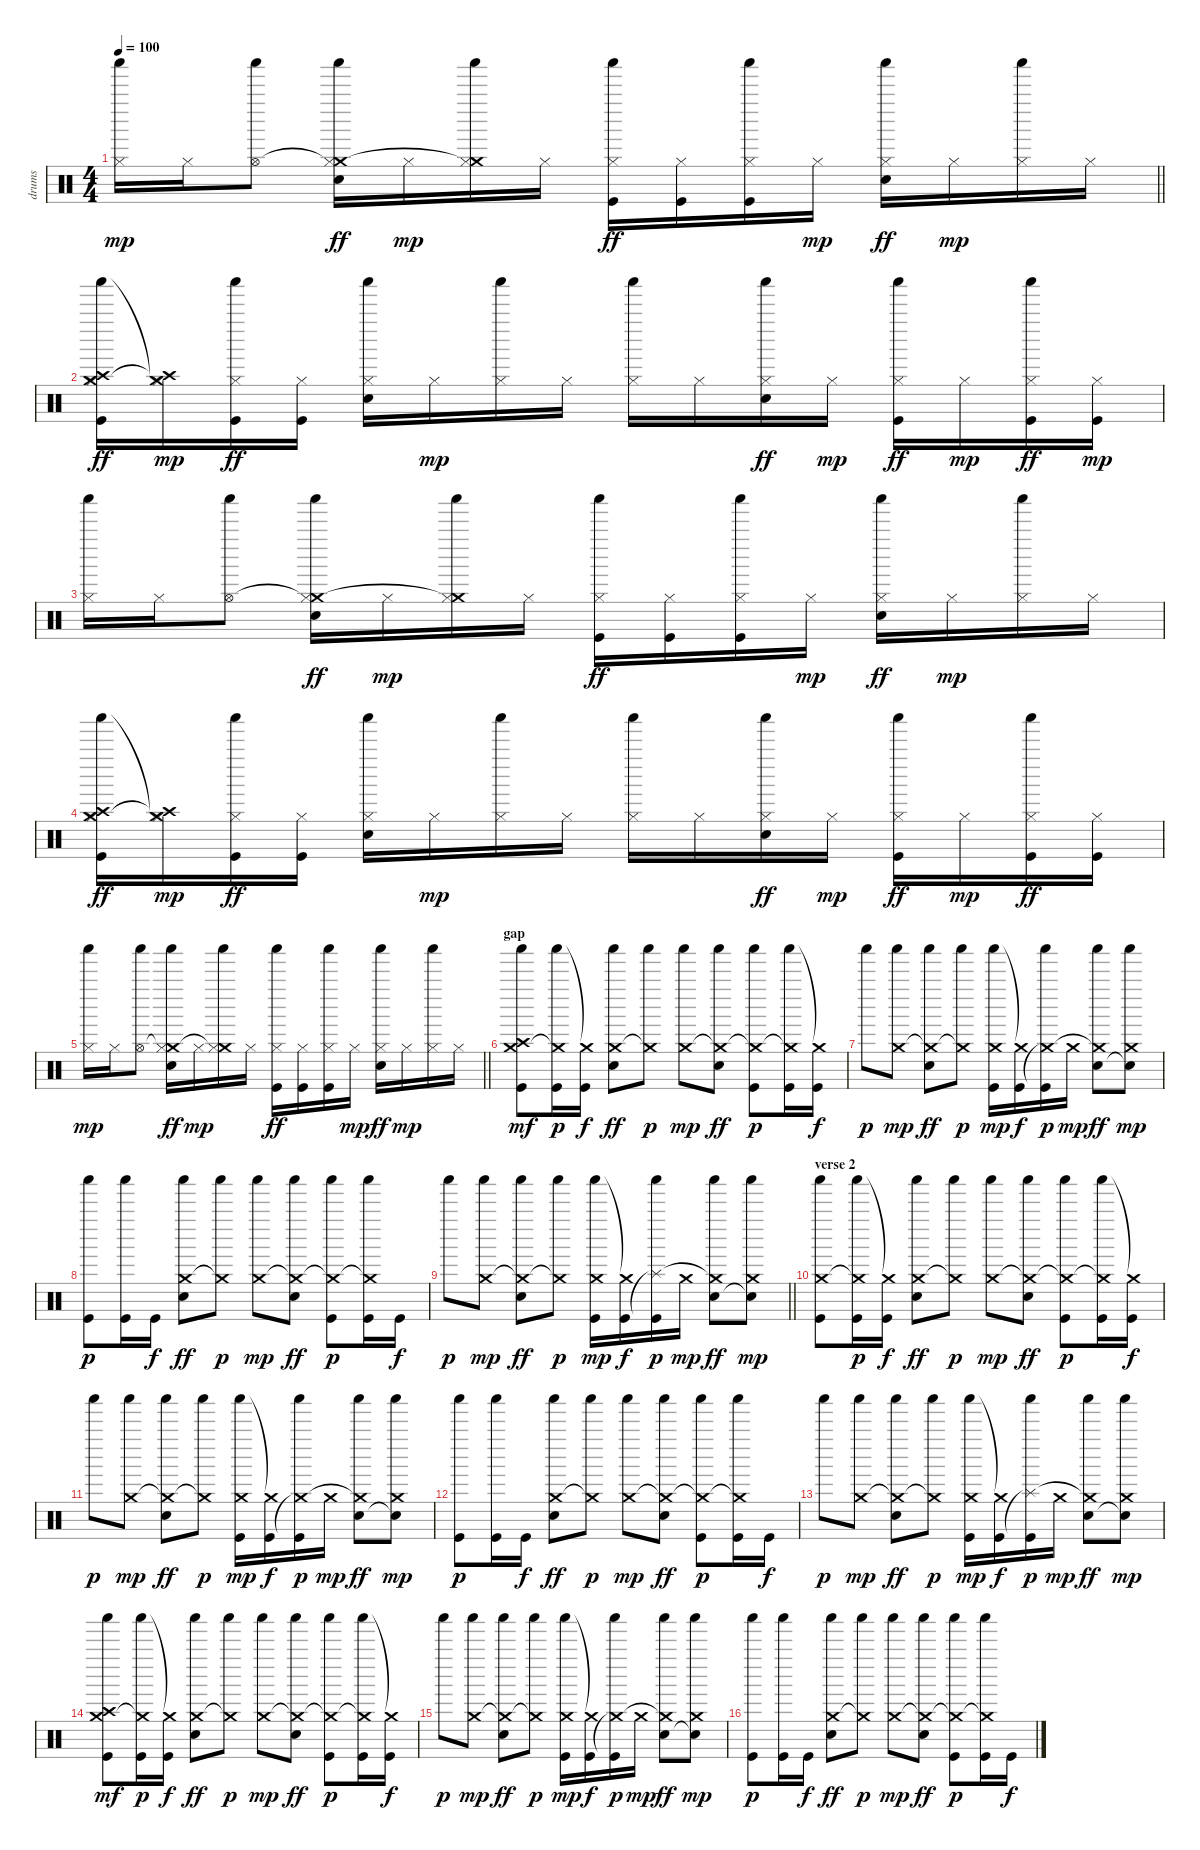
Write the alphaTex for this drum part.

\track ("drums" "drums") {instrument percussion}
\staff {score}
\articulation defaults
\ts (4 4)
\tempo 100
\clef neutral
\barLineRight lightlight
\ks c
("Shaker (hit)" "Hi-Hat (closed)").16{dy mp} "Hi-Hat (closed)".16 ("Shaker (hit)" "Hi-Hat (open)").8 ("Shaker (hit)" "Crash medium (hit)"{t} "Hi-Hat (closed)" "Electric Snare (hit)").16{dy ff} "Hi-Hat (closed)".16{dy mp} ("Shaker (hit)" "Crash medium (hit)"{t} "Hi-Hat (closed)").16 "Hi-Hat (closed)".16 ("Shaker (hit)" "Hi-Hat (closed)" "Kick (hit)").16{dy ff} ("Hi-Hat (closed)" "Kick (hit)").16 ("Shaker (hit)" "Hi-Hat (closed)" "Kick (hit)").16 "Hi-Hat (closed)".16{dy mp} ("Shaker (hit)" "Hi-Hat (closed)" "Electric Snare (hit)").16{dy ff} "Hi-Hat (closed)".16{dy mp} ("Shaker (hit)" "Hi-Hat (closed)").16 "Hi-Hat (closed)".16 |
("Shaker (hit)" "Crash medium (hit)" "Crash high (hit)" "Hi-Hat (closed)" "Kick (hit)").16{dy ff} ("Crash medium (hit)"{t} "Crash high (hit)"{t} "Hi-Hat (closed)").16{dy mp} ("Shaker (hit)" "Hi-Hat (closed)" "Kick (hit)").16{dy ff} ("Hi-Hat (closed)" "Kick (hit)").16 ("Shaker (hit)" "Hi-Hat (closed)" "Electric Snare (hit)").16 "Hi-Hat (closed)".16{dy mp} ("Shaker (hit)" "Hi-Hat (closed)").16 "Hi-Hat (closed)".16 ("Shaker (hit)" "Hi-Hat (closed)").16 "Hi-Hat (closed)".16 ("Shaker (hit)" "Hi-Hat (closed)" "Electric Snare (hit)").16{dy ff} "Hi-Hat (closed)".16{dy mp} ("Shaker (hit)" "Hi-Hat (closed)" "Kick (hit)").16{dy ff} "Hi-Hat (closed)".16{dy mp} ("Shaker (hit)" "Hi-Hat (closed)" "Kick (hit)").16{dy ff} ("Hi-Hat (closed)" "Kick (hit)").16{dy mp} |
("Shaker (hit)" "Hi-Hat (closed)").16 "Hi-Hat (closed)".16 ("Shaker (hit)" "Hi-Hat (open)").8 ("Shaker (hit)" "Crash medium (hit)"{t} "Hi-Hat (closed)" "Electric Snare (hit)").16{dy ff} "Hi-Hat (closed)".16{dy mp} ("Shaker (hit)" "Crash medium (hit)"{t} "Hi-Hat (closed)").16 "Hi-Hat (closed)".16 ("Shaker (hit)" "Hi-Hat (closed)" "Kick (hit)").16{dy ff} ("Hi-Hat (closed)" "Kick (hit)").16 ("Shaker (hit)" "Hi-Hat (closed)" "Kick (hit)").16 "Hi-Hat (closed)".16{dy mp} ("Shaker (hit)" "Hi-Hat (closed)" "Electric Snare (hit)").16{dy ff} "Hi-Hat (closed)".16{dy mp} ("Shaker (hit)" "Hi-Hat (closed)").16 "Hi-Hat (closed)".16 |
("Shaker (hit)" "Crash medium (hit)" "Crash high (hit)" "Hi-Hat (closed)" "Kick (hit)").16{dy ff} ("Crash medium (hit)"{t} "Crash high (hit)"{t} "Hi-Hat (closed)").16{dy mp} ("Shaker (hit)" "Hi-Hat (closed)" "Kick (hit)").16{dy ff} ("Hi-Hat (closed)" "Kick (hit)").16 ("Shaker (hit)" "Hi-Hat (closed)" "Electric Snare (hit)").16 "Hi-Hat (closed)".16{dy mp} ("Shaker (hit)" "Hi-Hat (closed)").16 "Hi-Hat (closed)".16 ("Shaker (hit)" "Hi-Hat (closed)").16 "Hi-Hat (closed)".16 ("Shaker (hit)" "Hi-Hat (closed)" "Electric Snare (hit)").16{dy ff} "Hi-Hat (closed)".16{dy mp} ("Shaker (hit)" "Hi-Hat (closed)" "Kick (hit)").16{dy ff} "Hi-Hat (closed)".16{dy mp} ("Shaker (hit)" "Hi-Hat (closed)" "Kick (hit)").16{dy ff} ("Hi-Hat (closed)" "Kick (hit)").16 |
\barLineRight lightlight
("Shaker (hit)" "Hi-Hat (closed)").16{dy mp} "Hi-Hat (closed)".16 ("Shaker (hit)" "Hi-Hat (open)").8 ("Shaker (hit)" "Crash medium (hit)"{t} "Hi-Hat (closed)" "Electric Snare (hit)").16{dy ff} "Hi-Hat (closed)".16{dy mp} ("Shaker (hit)" "Crash medium (hit)"{t} "Hi-Hat (closed)").16 "Hi-Hat (closed)".16 ("Shaker (hit)" "Hi-Hat (closed)" "Kick (hit)").16{dy ff} ("Hi-Hat (closed)" "Kick (hit)").16 ("Shaker (hit)" "Hi-Hat (closed)" "Kick (hit)").16 "Hi-Hat (closed)".16{dy mp} ("Shaker (hit)" "Hi-Hat (closed)" "Electric Snare (hit)").16{dy ff} "Hi-Hat (closed)".16{dy mp} ("Shaker (hit)" "Hi-Hat (closed)").16 "Hi-Hat (closed)".16 |
\section ("" "gap")
("Shaker (hit)" "Crash medium (hit)" "Crash high (hit)" "Kick (hit)").8{dy mf} ("Shaker (hit)" "Crash medium (hit)"{t} "Kick (hit)").16{dy p} ("Crash medium (hit)"{t} "Kick (hit)").16{dy f} ("Shaker (hit)" "Crash medium (hit)" "Electric Snare (hit)").8{dy ff} ("Shaker (hit)" "Crash medium (hit)"{t}).8{dy p} ("Shaker (hit)" "Crash medium (hit)").8{dy mp} ("Shaker (hit)" "Crash medium (hit)"{t} "Electric Snare (hit)").8{dy ff} ("Shaker (hit)" "Crash medium (hit)"{t} "Kick (hit)").8{dy p} ("Shaker (hit)" "Crash medium (hit)"{t} "Kick (hit)").16 ("Crash medium (hit)"{t} "Kick (hit)").16{dy f} |
"Shaker (hit)".8{dy p} ("Shaker (hit)" "Crash medium (hit)").8{dy mp} ("Shaker (hit)" "Crash medium (hit)"{t} "Electric Snare (hit)").8{dy ff} ("Shaker (hit)" "Crash medium (hit)"{t}).8{dy p} ("Shaker (hit)" "Crash medium (hit)" "Kick (hit)").16{dy mp} ("Crash medium (hit)"{t} "Kick (hit)").16{dy f} ("Shaker (hit)" "Crash medium (hit)"{t} "Kick (hit)").16{dy p} "Crash medium (hit)".16{dy mp} ("Shaker (hit)" "Crash medium (hit)"{t} "Electric Snare (hit)").8{dy ff} ("Shaker (hit)" "Crash medium (hit)" "Electric Snare (hit)"{t}).8{dy mp} |
("Shaker (hit)" "Kick (hit)").8{dy p} ("Shaker (hit)" "Kick (hit)").16 "Kick (hit)".16{dy f} ("Shaker (hit)" "Crash medium (hit)" "Electric Snare (hit)").8{dy ff} ("Shaker (hit)" "Crash medium (hit)"{t}).8{dy p} ("Shaker (hit)" "Crash medium (hit)").8{dy mp} ("Shaker (hit)" "Crash medium (hit)"{t} "Electric Snare (hit)").8{dy ff} ("Shaker (hit)" "Crash medium (hit)"{t} "Kick (hit)").8{dy p} ("Shaker (hit)" "Crash medium (hit)"{t} "Kick (hit)").16 "Kick (hit)".16{dy f} |
\barLineRight lightlight "Shaker (hit)".8{dy p}
("Shaker (hit)" "Crash medium (hit)").8{dy mp} ("Shaker (hit)" "Crash medium (hit)"{t} "Electric Snare (hit)").8{dy ff} ("Shaker (hit)" "Crash medium (hit)"{t}).8{dy p} ("Shaker (hit)" "Crash medium (hit)" "Kick (hit)").16{dy mp} ("Crash medium (hit)"{t} "Kick (hit)").16{dy f} ("Shaker (hit)" "Splash (hit)"{t} "Kick (hit)").16{dy p} "Crash medium (hit)".16{dy mp} ("Shaker (hit)" "Crash medium (hit)"{t} "Electric Snare (hit)").8{dy ff} ("Shaker (hit)" "Crash medium (hit)" "Electric Snare (hit)"{t}).8{dy mp} |
\section ("" "verse 2")
("Shaker (hit)" "Crash medium (hit)" "Kick (hit)").8 ("Shaker (hit)" "Crash medium (hit)"{t} "Kick (hit)").16{dy p} ("Crash medium (hit)"{t} "Kick (hit)").16{dy f} ("Shaker (hit)" "Crash medium (hit)" "Electric Snare (hit)").8{dy ff} ("Shaker (hit)" "Crash medium (hit)"{t}).8{dy p} ("Shaker (hit)" "Crash medium (hit)").8{dy mp} ("Shaker (hit)" "Crash medium (hit)"{t} "Electric Snare (hit)").8{dy ff} ("Shaker (hit)" "Crash medium (hit)"{t} "Kick (hit)").8{dy p} ("Shaker (hit)" "Crash medium (hit)"{t} "Kick (hit)").16 ("Crash medium (hit)"{t} "Kick (hit)").16{dy f} |
"Shaker (hit)".8{dy p} ("Shaker (hit)" "Crash medium (hit)").8{dy mp} ("Shaker (hit)" "Crash medium (hit)"{t} "Electric Snare (hit)").8{dy ff} ("Shaker (hit)" "Crash medium (hit)"{t}).8{dy p} ("Shaker (hit)" "Crash medium (hit)" "Kick (hit)").16{dy mp} ("Crash medium (hit)"{t} "Kick (hit)").16{dy f} ("Shaker (hit)" "Crash medium (hit)"{t} "Kick (hit)").16{dy p} "Crash medium (hit)".16{dy mp} ("Shaker (hit)" "Crash medium (hit)"{t} "Electric Snare (hit)").8{dy ff} ("Shaker (hit)" "Crash medium (hit)" "Electric Snare (hit)"{t}).8{dy mp} |
("Shaker (hit)" "Kick (hit)").8{dy p} ("Shaker (hit)" "Kick (hit)").16 "Kick (hit)".16{dy f} ("Shaker (hit)" "Crash medium (hit)" "Electric Snare (hit)").8{dy ff} ("Shaker (hit)" "Crash medium (hit)"{t}).8{dy p} ("Shaker (hit)" "Crash medium (hit)").8{dy mp} ("Shaker (hit)" "Crash medium (hit)"{t} "Electric Snare (hit)").8{dy ff} ("Shaker (hit)" "Crash medium (hit)"{t} "Kick (hit)").8{dy p} ("Shaker (hit)" "Crash medium (hit)"{t} "Kick (hit)").16 "Kick (hit)".16{dy f} |
"Shaker (hit)".8{dy p} ("Shaker (hit)" "Crash medium (hit)").8{dy mp} ("Shaker (hit)" "Crash medium (hit)"{t} "Electric Snare (hit)").8{dy ff} ("Shaker (hit)" "Crash medium (hit)"{t}).8{dy p} ("Shaker (hit)" "Crash medium (hit)" "Kick (hit)").16{dy mp} ("Crash medium (hit)"{t} "Kick (hit)").16{dy f} ("Shaker (hit)" "Splash (hit)"{t} "Kick (hit)").16{dy p} "Crash medium (hit)".16{dy mp} ("Shaker (hit)" "Crash medium (hit)"{t} "Electric Snare (hit)").8{dy ff} ("Shaker (hit)" "Crash medium (hit)" "Electric Snare (hit)"{t}).8{dy mp} |
("Shaker (hit)" "Crash medium (hit)" "Crash high (hit)" "Kick (hit)").8{dy mf} ("Shaker (hit)" "Crash medium (hit)"{t} "Kick (hit)").16{dy p} ("Crash medium (hit)"{t} "Kick (hit)").16{dy f} ("Shaker (hit)" "Crash medium (hit)" "Electric Snare (hit)").8{dy ff} ("Shaker (hit)" "Crash medium (hit)"{t}).8{dy p} ("Shaker (hit)" "Crash medium (hit)").8{dy mp} ("Shaker (hit)" "Crash medium (hit)"{t} "Electric Snare (hit)").8{dy ff} ("Shaker (hit)" "Crash medium (hit)"{t} "Kick (hit)").8{dy p} ("Shaker (hit)" "Crash medium (hit)"{t} "Kick (hit)").16 ("Crash medium (hit)"{t} "Kick (hit)").16{dy f} |
"Shaker (hit)".8{dy p} ("Shaker (hit)" "Crash medium (hit)").8{dy mp} ("Shaker (hit)" "Crash medium (hit)"{t} "Electric Snare (hit)").8{dy ff} ("Shaker (hit)" "Crash medium (hit)"{t}).8{dy p} ("Shaker (hit)" "Crash medium (hit)" "Kick (hit)").16{dy mp} ("Crash medium (hit)"{t} "Kick (hit)").16{dy f} ("Shaker (hit)" "Crash medium (hit)"{t} "Kick (hit)").16{dy p} "Crash medium (hit)".16{dy mp} ("Shaker (hit)" "Crash medium (hit)"{t} "Electric Snare (hit)").8{dy ff} ("Shaker (hit)" "Crash medium (hit)" "Electric Snare (hit)"{t}).8{dy mp} |
("Shaker (hit)" "Kick (hit)").8{dy p} ("Shaker (hit)" "Kick (hit)").16 "Kick (hit)".16{dy f} ("Shaker (hit)" "Crash medium (hit)" "Electric Snare (hit)").8{dy ff} ("Shaker (hit)" "Crash medium (hit)"{t}).8{dy p} ("Shaker (hit)" "Crash medium (hit)").8{dy mp} ("Shaker (hit)" "Crash medium (hit)"{t} "Electric Snare (hit)").8{dy ff} ("Shaker (hit)" "Crash medium (hit)"{t} "Kick (hit)").8{dy p} ("Shaker (hit)" "Crash medium (hit)"{t} "Kick (hit)").16 "Kick (hit)".16{dy f}
